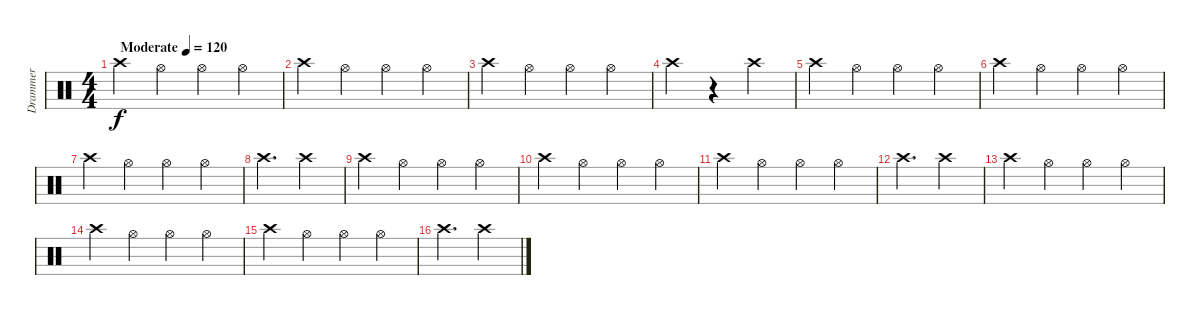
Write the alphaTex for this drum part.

\track ("Drammer" "Drammer") {instrument percussion}
\staff {score}
\articulation defaults
\ts (4 4)
\tempo (120 "Moderate")
\clef neutral
\ks c "Crash high (hit)".4{dy f} "Hi-Hat (open)".4 "Hi-Hat (open)".4 "Hi-Hat (open)".4
|
"Crash high (hit)".4 "Hi-Hat (open)".4 "Hi-Hat (open)".4 "Hi-Hat (open)".4 |
"Crash high (hit)".4 "Hi-Hat (open)".4 "Hi-Hat (open)".4 "Hi-Hat (open)".4 |
"Crash high (hit)".4 r.4 "Crash high (hit)".4 |
"Crash high (hit)".4 "Hi-Hat (open)".4 "Hi-Hat (open)".4 "Hi-Hat (open)".4 |
"Crash high (hit)".4 "Hi-Hat (open)".4 "Hi-Hat (open)".4 "Hi-Hat (open)".4 |
"Crash high (hit)".4 "Hi-Hat (open)".4 "Hi-Hat (open)".4 "Hi-Hat (open)".4 |
"Crash high (hit)".4{d} "Crash high (hit)".4 |
"Crash high (hit)".4 "Hi-Hat (open)".4 "Hi-Hat (open)".4 "Hi-Hat (open)".4 |
"Crash high (hit)".4 "Hi-Hat (open)".4 "Hi-Hat (open)".4 "Hi-Hat (open)".4 |
"Crash high (hit)".4 "Hi-Hat (open)".4 "Hi-Hat (open)".4 "Hi-Hat (open)".4 |
"Crash high (hit)".4{d} "Crash high (hit)".4 |
"Crash high (hit)".4 "Hi-Hat (open)".4 "Hi-Hat (open)".4 "Hi-Hat (open)".4 |
"Crash high (hit)".4 "Hi-Hat (open)".4 "Hi-Hat (open)".4 "Hi-Hat (open)".4 |
"Crash high (hit)".4 "Hi-Hat (open)".4 "Hi-Hat (open)".4 "Hi-Hat (open)".4 |
"Crash high (hit)".4{d} "Crash high (hit)".4
